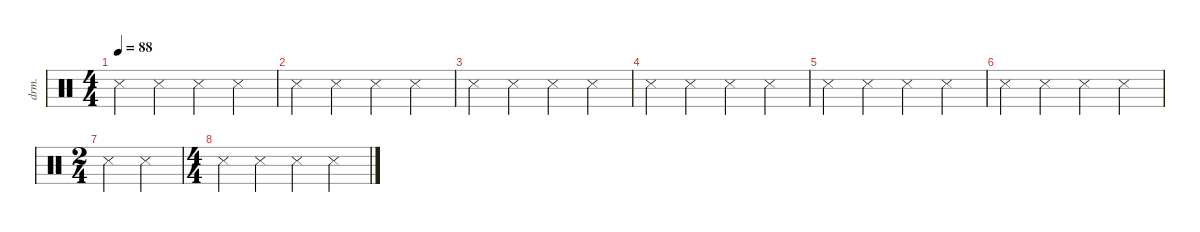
\defaultSystemsLayout 4
\hideDynamics
\bracketExtendMode nobrackets
\otherSystemsTrackNameOrientation horizontal
\track ("Drumkit" "drm.") {instrument percussion}
\staff {score}
\articulation defaults
\ts (4 4)
\tempo 88
\clef neutral
\ks c "Metronome (hit)".4{dy mf beam Down} "Metronome (hit)".4{beam Down} "Metronome (hit)".4{beam Down} "Metronome (hit)".4{beam Down}
|
"Metronome (hit)".4{beam Down} "Metronome (hit)".4{beam Down} "Metronome (hit)".4{beam Down} "Metronome (hit)".4{beam Down} |
"Metronome (hit)".4{beam Down} "Metronome (hit)".4{beam Down} "Metronome (hit)".4{beam Down} "Metronome (hit)".4{beam Down} |
"Metronome (hit)".4{beam Down} "Metronome (hit)".4{beam Down} "Metronome (hit)".4{beam Down} "Metronome (hit)".4{beam Down} |
"Metronome (hit)".4{beam Down} "Metronome (hit)".4{beam Down} "Metronome (hit)".4{beam Down} "Metronome (hit)".4{beam Down} |
"Metronome (hit)".4{beam Down} "Metronome (hit)".4{beam Down} "Metronome (hit)".4{beam Down} "Metronome (hit)".4{beam Down} |
\ts (2 4)
\beaming (8 2 2)
"Metronome (hit)".4{beam Down} "Metronome (hit)".4{beam Down} |
\ts (4 4)
\beaming (8 2 2 2 2)
"Metronome (hit)".4{beam Down} "Metronome (hit)".4{beam Down} "Metronome (hit)".4{beam Down} "Metronome (hit)".4{beam Down}
